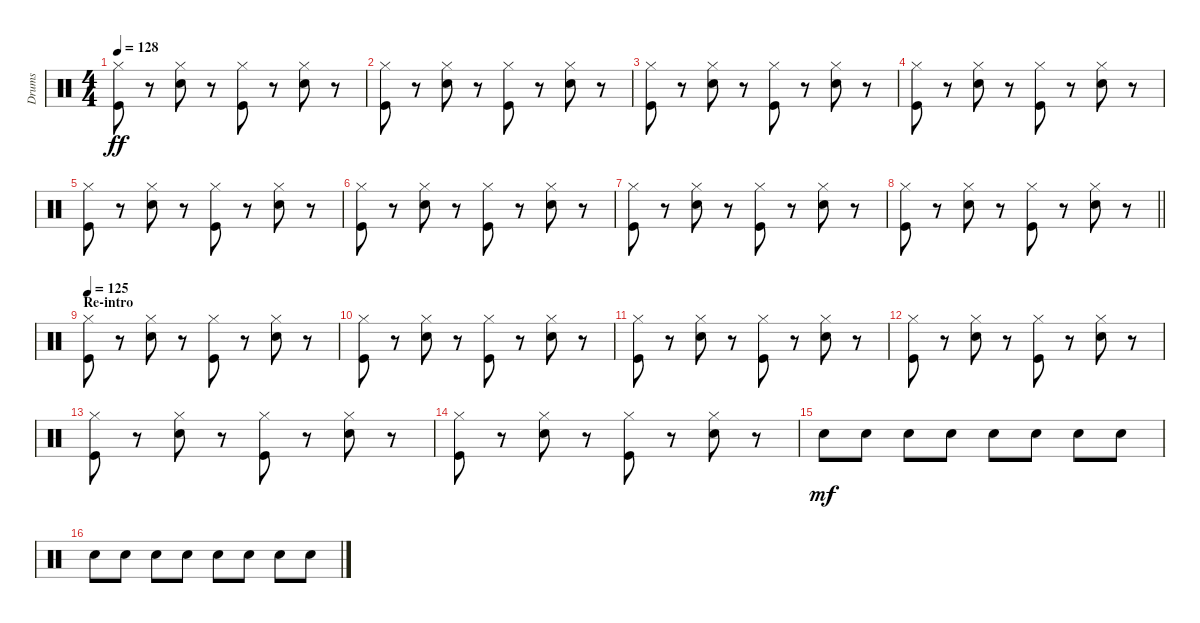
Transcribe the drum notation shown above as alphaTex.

\track ("Drums" "Drums") {instrument percussion}
\staff {score}
\articulation defaults
\ts (4 4)
\tempo 128
\clef neutral
\ks c
("Hi-Hat (closed)" "Kick (hit)").8{dy ff} r.8 ("Hi-Hat (closed)" "Snare (hit) 2").8 r.8 ("Hi-Hat (closed)" "Kick (hit)").8 r.8 ("Hi-Hat (closed)" "Snare (hit) 2").8 r.8 |
("Hi-Hat (closed)" "Kick (hit)").8 r.8 ("Hi-Hat (closed)" "Snare (hit) 2").8 r.8 ("Hi-Hat (closed)" "Kick (hit)").8 r.8 ("Hi-Hat (closed)" "Snare (hit) 2").8 r.8 |
("Hi-Hat (closed)" "Kick (hit)").8 r.8 ("Hi-Hat (closed)" "Snare (hit) 2").8 r.8 ("Hi-Hat (closed)" "Kick (hit)").8 r.8 ("Hi-Hat (closed)" "Snare (hit) 2").8 r.8 |
("Hi-Hat (closed)" "Kick (hit)").8 r.8 ("Hi-Hat (closed)" "Snare (hit) 2").8 r.8 ("Hi-Hat (closed)" "Kick (hit)").8 r.8 ("Hi-Hat (closed)" "Snare (hit) 2").8 r.8 |
("Hi-Hat (closed)" "Kick (hit)").8 r.8 ("Hi-Hat (closed)" "Snare (hit) 2").8 r.8 ("Hi-Hat (closed)" "Kick (hit)").8 r.8 ("Hi-Hat (closed)" "Snare (hit) 2").8 r.8 |
("Hi-Hat (closed)" "Kick (hit)").8 r.8 ("Hi-Hat (closed)" "Snare (hit) 2").8 r.8 ("Hi-Hat (closed)" "Kick (hit)").8 r.8 ("Hi-Hat (closed)" "Snare (hit) 2").8 r.8 |
("Hi-Hat (closed)" "Kick (hit)").8 r.8 ("Hi-Hat (closed)" "Snare (hit) 2").8 r.8 ("Hi-Hat (closed)" "Kick (hit)").8 r.8 ("Hi-Hat (closed)" "Snare (hit) 2").8 r.8 |
\barLineRight lightlight
("Hi-Hat (closed)" "Kick (hit)").8 r.8 ("Hi-Hat (closed)" "Snare (hit) 2").8 r.8 ("Hi-Hat (closed)" "Kick (hit)").8 r.8 ("Hi-Hat (closed)" "Snare (hit) 2").8 r.8 |
\section ("" "Re-intro")
\tempo 125
("Hi-Hat (closed)" "Kick (hit)").8 r.8 ("Hi-Hat (closed)" "Snare (hit) 2").8 r.8 ("Hi-Hat (closed)" "Kick (hit)").8 r.8 ("Hi-Hat (closed)" "Snare (hit) 2").8 r.8 |
("Hi-Hat (closed)" "Kick (hit)").8 r.8 ("Hi-Hat (closed)" "Snare (hit) 2").8 r.8 ("Hi-Hat (closed)" "Kick (hit)").8 r.8 ("Hi-Hat (closed)" "Snare (hit) 2").8 r.8 |
("Hi-Hat (closed)" "Kick (hit)").8 r.8 ("Hi-Hat (closed)" "Snare (hit) 2").8 r.8 ("Hi-Hat (closed)" "Kick (hit)").8 r.8 ("Hi-Hat (closed)" "Snare (hit) 2").8 r.8 |
("Hi-Hat (closed)" "Kick (hit)").8 r.8 ("Hi-Hat (closed)" "Snare (hit) 2").8 r.8 ("Hi-Hat (closed)" "Kick (hit)").8 r.8 ("Hi-Hat (closed)" "Snare (hit) 2").8 r.8 |
("Hi-Hat (closed)" "Kick (hit)").8 r.8 ("Hi-Hat (closed)" "Snare (hit) 2").8 r.8 ("Hi-Hat (closed)" "Kick (hit)").8 r.8 ("Hi-Hat (closed)" "Snare (hit) 2").8 r.8 |
("Hi-Hat (closed)" "Kick (hit)").8 r.8 ("Hi-Hat (closed)" "Snare (hit) 2").8 r.8 ("Hi-Hat (closed)" "Kick (hit)").8 r.8 ("Hi-Hat (closed)" "Snare (hit) 2").8 r.8 |
"Snare (hit) 2".8{dy mf} "Snare (hit) 2".8 "Snare (hit) 2".8 "Snare (hit) 2".8 "Snare (hit) 2".8 "Snare (hit) 2".8 "Snare (hit) 2".8 "Snare (hit) 2".8 |
"Snare (hit) 2".8 "Snare (hit) 2".8 "Snare (hit) 2".8 "Snare (hit) 2".8 "Snare (hit) 2".8 "Snare (hit) 2".8 "Snare (hit) 2".8 "Snare (hit) 2".8
